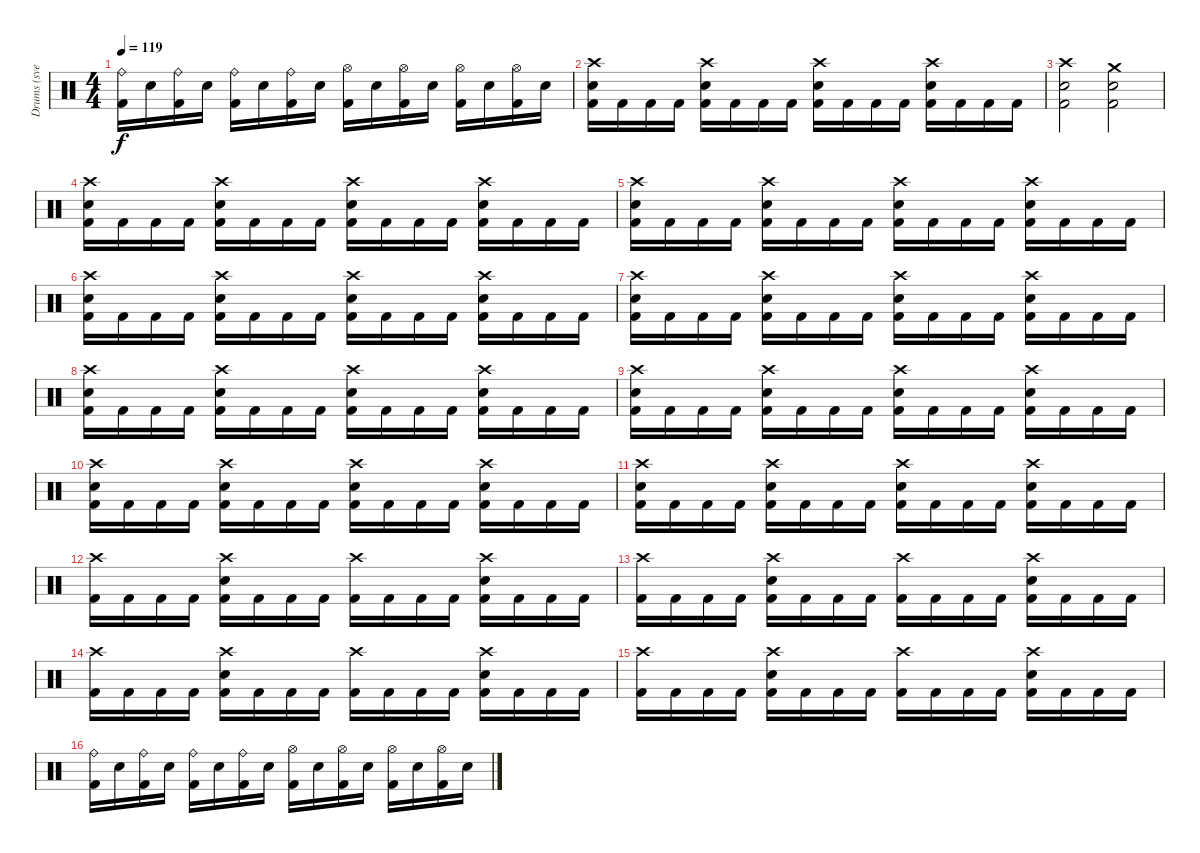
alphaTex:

\track ("Drums (svelle)" "Drums (sve") {instrument percussion}
\staff {score}
\articulation defaults
\ts (4 4)
\tempo 119
\clef neutral
\ks c
("Ride (bell)" "Kick (hit) 2").16{dy f} "Electric Snare (hit)".16 ("Ride (bell)" "Kick (hit) 2").16 "Electric Snare (hit)".16 ("Ride (bell)" "Kick (hit) 2").16 "Electric Snare (hit)".16 ("Ride (bell)" "Kick (hit) 2").16 "Electric Snare (hit)".16 ("Hi-Hat (open)" "Kick (hit) 2").16 "Electric Snare (hit)".16 ("Hi-Hat (open)" "Kick (hit) 2").16 "Electric Snare (hit)".16 ("Hi-Hat (open)" "Kick (hit) 2").16 "Electric Snare (hit)".16 ("Hi-Hat (open)" "Kick (hit) 2").16 "Electric Snare (hit)".16 |
("Crash high (hit)" "Electric Snare (hit)" "Kick (hit) 2").16 "Kick (hit) 2".16 "Kick (hit) 2".16 "Kick (hit) 2".16 ("Crash high (hit)" "Electric Snare (hit)" "Kick (hit) 2").16 "Kick (hit) 2".16 "Kick (hit) 2".16 "Kick (hit) 2".16 ("Crash high (hit)" "Electric Snare (hit)" "Kick (hit) 2").16 "Kick (hit) 2".16 "Kick (hit) 2".16 "Kick (hit) 2".16 ("Crash high (hit)" "Electric Snare (hit)" "Kick (hit) 2").16 "Kick (hit) 2".16 "Kick (hit) 2".16 "Kick (hit) 2".16 |
("Crash high (hit)" "Electric Snare (hit)" "Kick (hit) 2").2 ("Crash medium (hit)" "Electric Snare (hit)" "Kick (hit) 2").2 |
("Crash high (hit)" "Electric Snare (hit)" "Kick (hit) 2").16 "Kick (hit) 2".16 "Kick (hit) 2".16 "Kick (hit) 2".16 ("Crash high (hit)" "Electric Snare (hit)" "Kick (hit) 2").16 "Kick (hit) 2".16 "Kick (hit) 2".16 "Kick (hit) 2".16 ("Crash high (hit)" "Electric Snare (hit)" "Kick (hit) 2").16 "Kick (hit) 2".16 "Kick (hit) 2".16 "Kick (hit) 2".16 ("Crash high (hit)" "Electric Snare (hit)" "Kick (hit) 2").16 "Kick (hit) 2".16 "Kick (hit) 2".16 "Kick (hit) 2".16 |
("Crash high (hit)" "Electric Snare (hit)" "Kick (hit) 2").16 "Kick (hit) 2".16 "Kick (hit) 2".16 "Kick (hit) 2".16 ("Crash high (hit)" "Electric Snare (hit)" "Kick (hit) 2").16 "Kick (hit) 2".16 "Kick (hit) 2".16 "Kick (hit) 2".16 ("Crash high (hit)" "Electric Snare (hit)" "Kick (hit) 2").16 "Kick (hit) 2".16 "Kick (hit) 2".16 "Kick (hit) 2".16 ("Crash high (hit)" "Electric Snare (hit)" "Kick (hit) 2").16 "Kick (hit) 2".16 "Kick (hit) 2".16 "Kick (hit) 2".16 |
("Crash high (hit)" "Electric Snare (hit)" "Kick (hit) 2").16 "Kick (hit) 2".16 "Kick (hit) 2".16 "Kick (hit) 2".16 ("Crash high (hit)" "Electric Snare (hit)" "Kick (hit) 2").16 "Kick (hit) 2".16 "Kick (hit) 2".16 "Kick (hit) 2".16 ("Crash high (hit)" "Electric Snare (hit)" "Kick (hit) 2").16 "Kick (hit) 2".16 "Kick (hit) 2".16 "Kick (hit) 2".16 ("Crash high (hit)" "Electric Snare (hit)" "Kick (hit) 2").16 "Kick (hit) 2".16 "Kick (hit) 2".16 "Kick (hit) 2".16 |
("Crash high (hit)" "Electric Snare (hit)" "Kick (hit) 2").16 "Kick (hit) 2".16 "Kick (hit) 2".16 "Kick (hit) 2".16 ("Crash high (hit)" "Electric Snare (hit)" "Kick (hit) 2").16 "Kick (hit) 2".16 "Kick (hit) 2".16 "Kick (hit) 2".16 ("Crash high (hit)" "Electric Snare (hit)" "Kick (hit) 2").16 "Kick (hit) 2".16 "Kick (hit) 2".16 "Kick (hit) 2".16 ("Crash high (hit)" "Electric Snare (hit)" "Kick (hit) 2").16 "Kick (hit) 2".16 "Kick (hit) 2".16 "Kick (hit) 2".16 |
("Crash high (hit)" "Electric Snare (hit)" "Kick (hit) 2").16 "Kick (hit) 2".16 "Kick (hit) 2".16 "Kick (hit) 2".16 ("Crash high (hit)" "Electric Snare (hit)" "Kick (hit) 2").16 "Kick (hit) 2".16 "Kick (hit) 2".16 "Kick (hit) 2".16 ("Crash high (hit)" "Electric Snare (hit)" "Kick (hit) 2").16 "Kick (hit) 2".16 "Kick (hit) 2".16 "Kick (hit) 2".16 ("Crash high (hit)" "Electric Snare (hit)" "Kick (hit) 2").16 "Kick (hit) 2".16 "Kick (hit) 2".16 "Kick (hit) 2".16 |
("Crash high (hit)" "Electric Snare (hit)" "Kick (hit) 2").16 "Kick (hit) 2".16 "Kick (hit) 2".16 "Kick (hit) 2".16 ("Crash high (hit)" "Electric Snare (hit)" "Kick (hit) 2").16 "Kick (hit) 2".16 "Kick (hit) 2".16 "Kick (hit) 2".16 ("Crash high (hit)" "Electric Snare (hit)" "Kick (hit) 2").16 "Kick (hit) 2".16 "Kick (hit) 2".16 "Kick (hit) 2".16 ("Crash high (hit)" "Electric Snare (hit)" "Kick (hit) 2").16 "Kick (hit) 2".16 "Kick (hit) 2".16 "Kick (hit) 2".16 |
("Crash high (hit)" "Electric Snare (hit)" "Kick (hit) 2").16 "Kick (hit) 2".16 "Kick (hit) 2".16 "Kick (hit) 2".16 ("Crash high (hit)" "Electric Snare (hit)" "Kick (hit) 2").16 "Kick (hit) 2".16 "Kick (hit) 2".16 "Kick (hit) 2".16 ("Crash high (hit)" "Electric Snare (hit)" "Kick (hit) 2").16 "Kick (hit) 2".16 "Kick (hit) 2".16 "Kick (hit) 2".16 ("Crash high (hit)" "Electric Snare (hit)" "Kick (hit) 2").16 "Kick (hit) 2".16 "Kick (hit) 2".16 "Kick (hit) 2".16 |
("Crash high (hit)" "Electric Snare (hit)" "Kick (hit) 2").16 "Kick (hit) 2".16 "Kick (hit) 2".16 "Kick (hit) 2".16 ("Crash high (hit)" "Electric Snare (hit)" "Kick (hit) 2").16 "Kick (hit) 2".16 "Kick (hit) 2".16 "Kick (hit) 2".16 ("Crash high (hit)" "Electric Snare (hit)" "Kick (hit) 2").16 "Kick (hit) 2".16 "Kick (hit) 2".16 "Kick (hit) 2".16 ("Crash high (hit)" "Electric Snare (hit)" "Kick (hit) 2").16 "Kick (hit) 2".16 "Kick (hit) 2".16 "Kick (hit) 2".16 |
("Crash high (hit)" "Kick (hit) 2").16 "Kick (hit) 2".16 "Kick (hit) 2".16 "Kick (hit) 2".16 ("Crash high (hit)" "Electric Snare (hit)" "Kick (hit) 2").16 "Kick (hit) 2".16 "Kick (hit) 2".16 "Kick (hit) 2".16 ("Crash high (hit)" "Kick (hit) 2").16 "Kick (hit) 2".16 "Kick (hit) 2".16 "Kick (hit) 2".16 ("Crash high (hit)" "Electric Snare (hit)" "Kick (hit) 2").16 "Kick (hit) 2".16 "Kick (hit) 2".16 "Kick (hit) 2".16 |
("Crash high (hit)" "Kick (hit) 2").16 "Kick (hit) 2".16 "Kick (hit) 2".16 "Kick (hit) 2".16 ("Crash high (hit)" "Electric Snare (hit)" "Kick (hit) 2").16 "Kick (hit) 2".16 "Kick (hit) 2".16 "Kick (hit) 2".16 ("Crash high (hit)" "Kick (hit) 2").16 "Kick (hit) 2".16 "Kick (hit) 2".16 "Kick (hit) 2".16 ("Crash high (hit)" "Electric Snare (hit)" "Kick (hit) 2").16 "Kick (hit) 2".16 "Kick (hit) 2".16 "Kick (hit) 2".16 |
("Crash high (hit)" "Kick (hit) 2").16 "Kick (hit) 2".16 "Kick (hit) 2".16 "Kick (hit) 2".16 ("Crash high (hit)" "Electric Snare (hit)" "Kick (hit) 2").16 "Kick (hit) 2".16 "Kick (hit) 2".16 "Kick (hit) 2".16 ("Crash high (hit)" "Kick (hit) 2").16 "Kick (hit) 2".16 "Kick (hit) 2".16 "Kick (hit) 2".16 ("Crash high (hit)" "Electric Snare (hit)" "Kick (hit) 2").16 "Kick (hit) 2".16 "Kick (hit) 2".16 "Kick (hit) 2".16 |
("Crash high (hit)" "Kick (hit) 2").16 "Kick (hit) 2".16 "Kick (hit) 2".16 "Kick (hit) 2".16 ("Crash high (hit)" "Electric Snare (hit)" "Kick (hit) 2").16 "Kick (hit) 2".16 "Kick (hit) 2".16 "Kick (hit) 2".16 ("Crash high (hit)" "Kick (hit) 2").16 "Kick (hit) 2".16 "Kick (hit) 2".16 "Kick (hit) 2".16 ("Crash high (hit)" "Electric Snare (hit)" "Kick (hit) 2").16 "Kick (hit) 2".16 "Kick (hit) 2".16 "Kick (hit) 2".16 |
("Ride (bell)" "Kick (hit) 2").16 "Electric Snare (hit)".16 ("Ride (bell)" "Kick (hit) 2").16 "Electric Snare (hit)".16 ("Ride (bell)" "Kick (hit) 2").16 "Electric Snare (hit)".16 ("Ride (bell)" "Kick (hit) 2").16 "Electric Snare (hit)".16 ("Hi-Hat (open)" "Kick (hit) 2").16 "Electric Snare (hit)".16 ("Hi-Hat (open)" "Kick (hit) 2").16 "Electric Snare (hit)".16 ("Hi-Hat (open)" "Kick (hit) 2").16 "Electric Snare (hit)".16 ("Hi-Hat (open)" "Kick (hit) 2").16 "Electric Snare (hit)".16
